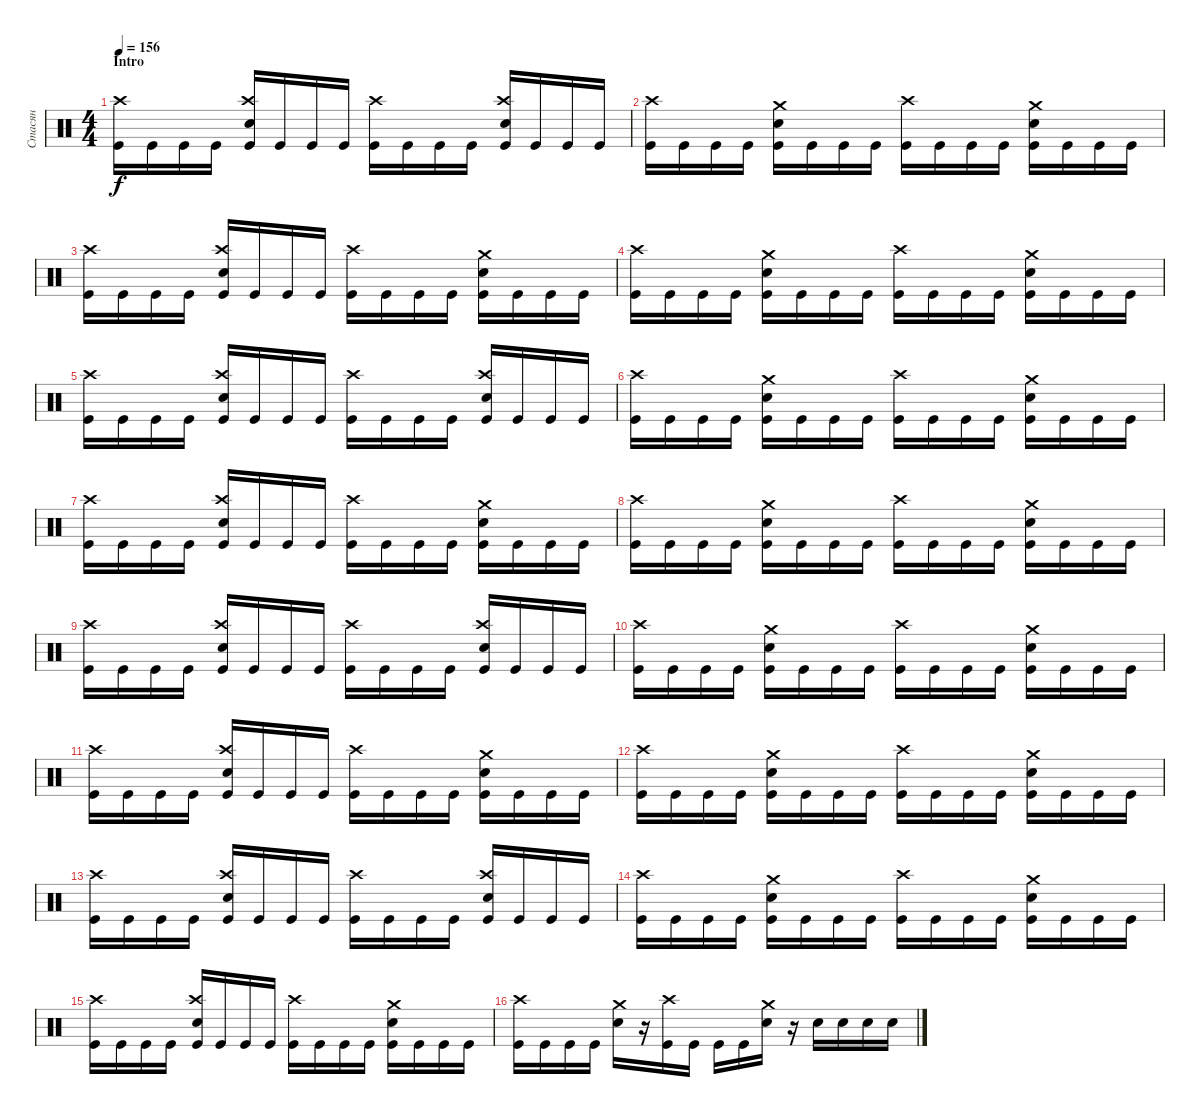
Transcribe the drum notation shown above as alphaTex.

\track ("Стасян" "Стасян") {instrument percussion}
\staff
\articulation defaults
\ts (4 4)
\section ("" "Intro")
\tempo 156
\clef neutral
\ks c
("Kick (hit)" "Crash high (hit)").16{dy f} "Kick (hit)".16 "Kick (hit)".16 "Kick (hit)".16 ("Kick (hit)" "Crash high (hit)" "Snare (hit) 2").16 "Kick (hit)".16 "Kick (hit)".16 "Kick (hit)".16 ("Kick (hit)" "Crash high (hit)").16 "Kick (hit)".16 "Kick (hit)".16 "Kick (hit)".16 ("Kick (hit)" "Crash high (hit)" "Snare (hit) 2").16 "Kick (hit)".16 "Kick (hit)".16 "Kick (hit)".16 |
("Kick (hit)" "Crash high (hit)").16 "Kick (hit)".16 "Kick (hit)".16 "Kick (hit)".16 ("Kick (hit)" "Crash medium (hit)" "Snare (hit) 2").16 "Kick (hit)".16 "Kick (hit)".16 "Kick (hit)".16 ("Kick (hit)" "Crash high (hit)").16 "Kick (hit)".16 "Kick (hit)".16 "Kick (hit)".16 ("Kick (hit)" "Crash medium (hit)" "Snare (hit) 2").16 "Kick (hit)".16 "Kick (hit)".16 "Kick (hit)".16 |
("Kick (hit)" "Crash high (hit)").16 "Kick (hit)".16 "Kick (hit)".16 "Kick (hit)".16 ("Kick (hit)" "Crash high (hit)" "Snare (hit) 2").16 "Kick (hit)".16 "Kick (hit)".16 "Kick (hit)".16 ("Kick (hit)" "Crash high (hit)").16 "Kick (hit)".16 "Kick (hit)".16 "Kick (hit)".16 ("Kick (hit)" "Snare (hit) 2" "Crash medium (hit)").16 "Kick (hit)".16 "Kick (hit)".16 "Kick (hit)".16 |
("Kick (hit)" "Crash high (hit)").16 "Kick (hit)".16 "Kick (hit)".16 "Kick (hit)".16 ("Kick (hit)" "Crash medium (hit)" "Snare (hit) 2").16 "Kick (hit)".16 "Kick (hit)".16 "Kick (hit)".16 ("Kick (hit)" "Crash high (hit)").16 "Kick (hit)".16 "Kick (hit)".16 "Kick (hit)".16 ("Kick (hit)" "Crash medium (hit)" "Snare (hit) 2").16 "Kick (hit)".16 "Kick (hit)".16 "Kick (hit)".16 |
("Kick (hit)" "Crash high (hit)").16 "Kick (hit)".16 "Kick (hit)".16 "Kick (hit)".16 ("Kick (hit)" "Crash high (hit)" "Snare (hit) 2").16 "Kick (hit)".16 "Kick (hit)".16 "Kick (hit)".16 ("Kick (hit)" "Crash high (hit)").16 "Kick (hit)".16 "Kick (hit)".16 "Kick (hit)".16 ("Kick (hit)" "Crash high (hit)" "Snare (hit) 2").16 "Kick (hit)".16 "Kick (hit)".16 "Kick (hit)".16 |
("Kick (hit)" "Crash high (hit)").16 "Kick (hit)".16 "Kick (hit)".16 "Kick (hit)".16 ("Kick (hit)" "Crash medium (hit)" "Snare (hit) 2").16 "Kick (hit)".16 "Kick (hit)".16 "Kick (hit)".16 ("Kick (hit)" "Crash high (hit)").16 "Kick (hit)".16 "Kick (hit)".16 "Kick (hit)".16 ("Kick (hit)" "Crash medium (hit)" "Snare (hit) 2").16 "Kick (hit)".16 "Kick (hit)".16 "Kick (hit)".16 |
("Kick (hit)" "Crash high (hit)").16 "Kick (hit)".16 "Kick (hit)".16 "Kick (hit)".16 ("Kick (hit)" "Crash high (hit)" "Snare (hit) 2").16 "Kick (hit)".16 "Kick (hit)".16 "Kick (hit)".16 ("Kick (hit)" "Crash high (hit)").16 "Kick (hit)".16 "Kick (hit)".16 "Kick (hit)".16 ("Kick (hit)" "Snare (hit) 2" "Crash medium (hit)").16 "Kick (hit)".16 "Kick (hit)".16 "Kick (hit)".16 |
("Kick (hit)" "Crash high (hit)").16 "Kick (hit)".16 "Kick (hit)".16 "Kick (hit)".16 ("Kick (hit)" "Crash medium (hit)" "Snare (hit) 2").16 "Kick (hit)".16 "Kick (hit)".16 "Kick (hit)".16 ("Kick (hit)" "Crash high (hit)").16 "Kick (hit)".16 "Kick (hit)".16 "Kick (hit)".16 ("Kick (hit)" "Crash medium (hit)" "Snare (hit) 2").16 "Kick (hit)".16 "Kick (hit)".16 "Kick (hit)".16 |
("Kick (hit)" "Crash high (hit)").16 "Kick (hit)".16 "Kick (hit)".16 "Kick (hit)".16 ("Kick (hit)" "Crash high (hit)" "Snare (hit) 2").16 "Kick (hit)".16 "Kick (hit)".16 "Kick (hit)".16 ("Kick (hit)" "Crash high (hit)").16 "Kick (hit)".16 "Kick (hit)".16 "Kick (hit)".16 ("Kick (hit)" "Crash high (hit)" "Snare (hit) 2").16 "Kick (hit)".16 "Kick (hit)".16 "Kick (hit)".16 |
("Kick (hit)" "Crash high (hit)").16 "Kick (hit)".16 "Kick (hit)".16 "Kick (hit)".16 ("Kick (hit)" "Crash medium (hit)" "Snare (hit) 2").16 "Kick (hit)".16 "Kick (hit)".16 "Kick (hit)".16 ("Kick (hit)" "Crash high (hit)").16 "Kick (hit)".16 "Kick (hit)".16 "Kick (hit)".16 ("Kick (hit)" "Crash medium (hit)" "Snare (hit) 2").16 "Kick (hit)".16 "Kick (hit)".16 "Kick (hit)".16 |
("Kick (hit)" "Crash high (hit)").16 "Kick (hit)".16 "Kick (hit)".16 "Kick (hit)".16 ("Kick (hit)" "Crash high (hit)" "Snare (hit) 2").16 "Kick (hit)".16 "Kick (hit)".16 "Kick (hit)".16 ("Kick (hit)" "Crash high (hit)").16 "Kick (hit)".16 "Kick (hit)".16 "Kick (hit)".16 ("Kick (hit)" "Snare (hit) 2" "Crash medium (hit)").16 "Kick (hit)".16 "Kick (hit)".16 "Kick (hit)".16 |
("Kick (hit)" "Crash high (hit)").16 "Kick (hit)".16 "Kick (hit)".16 "Kick (hit)".16 ("Kick (hit)" "Crash medium (hit)" "Snare (hit) 2").16 "Kick (hit)".16 "Kick (hit)".16 "Kick (hit)".16 ("Kick (hit)" "Crash high (hit)").16 "Kick (hit)".16 "Kick (hit)".16 "Kick (hit)".16 ("Kick (hit)" "Crash medium (hit)" "Snare (hit) 2").16 "Kick (hit)".16 "Kick (hit)".16 "Kick (hit)".16 |
("Kick (hit)" "Crash high (hit)").16 "Kick (hit)".16 "Kick (hit)".16 "Kick (hit)".16 ("Kick (hit)" "Crash high (hit)" "Snare (hit) 2").16 "Kick (hit)".16 "Kick (hit)".16 "Kick (hit)".16 ("Kick (hit)" "Crash high (hit)").16 "Kick (hit)".16 "Kick (hit)".16 "Kick (hit)".16 ("Kick (hit)" "Crash high (hit)" "Snare (hit) 2").16 "Kick (hit)".16 "Kick (hit)".16 "Kick (hit)".16 |
("Kick (hit)" "Crash high (hit)").16 "Kick (hit)".16 "Kick (hit)".16 "Kick (hit)".16 ("Kick (hit)" "Crash medium (hit)" "Snare (hit) 2").16 "Kick (hit)".16 "Kick (hit)".16 "Kick (hit)".16 ("Kick (hit)" "Crash high (hit)").16 "Kick (hit)".16 "Kick (hit)".16 "Kick (hit)".16 ("Kick (hit)" "Crash medium (hit)" "Snare (hit) 2").16 "Kick (hit)".16 "Kick (hit)".16 "Kick (hit)".16 |
("Kick (hit)" "Crash high (hit)").16 "Kick (hit)".16 "Kick (hit)".16 "Kick (hit)".16 ("Kick (hit)" "Crash high (hit)" "Snare (hit) 2").16 "Kick (hit)".16 "Kick (hit)".16 "Kick (hit)".16 ("Kick (hit)" "Crash high (hit)").16 "Kick (hit)".16 "Kick (hit)".16 "Kick (hit)".16 ("Kick (hit)" "Snare (hit) 2" "Crash medium (hit)").16 "Kick (hit)".16 "Kick (hit)".16 "Kick (hit)".16 |
("Kick (hit)" "Crash high (hit)").16 "Kick (hit)".16 "Kick (hit)".16 "Kick (hit)".16 ("Crash medium (hit)" "Snare (hit) 2").16 r.16 ("Kick (hit)" "Crash high (hit)").16 "Kick (hit)".16 "Kick (hit)".16 "Kick (hit)".16 ("Snare (hit) 2" "Crash medium (hit)").16 r.16 "Snare (hit) 2".16 "Snare (hit) 2".16 "Snare (hit) 2".16 "Snare (hit) 2".16
